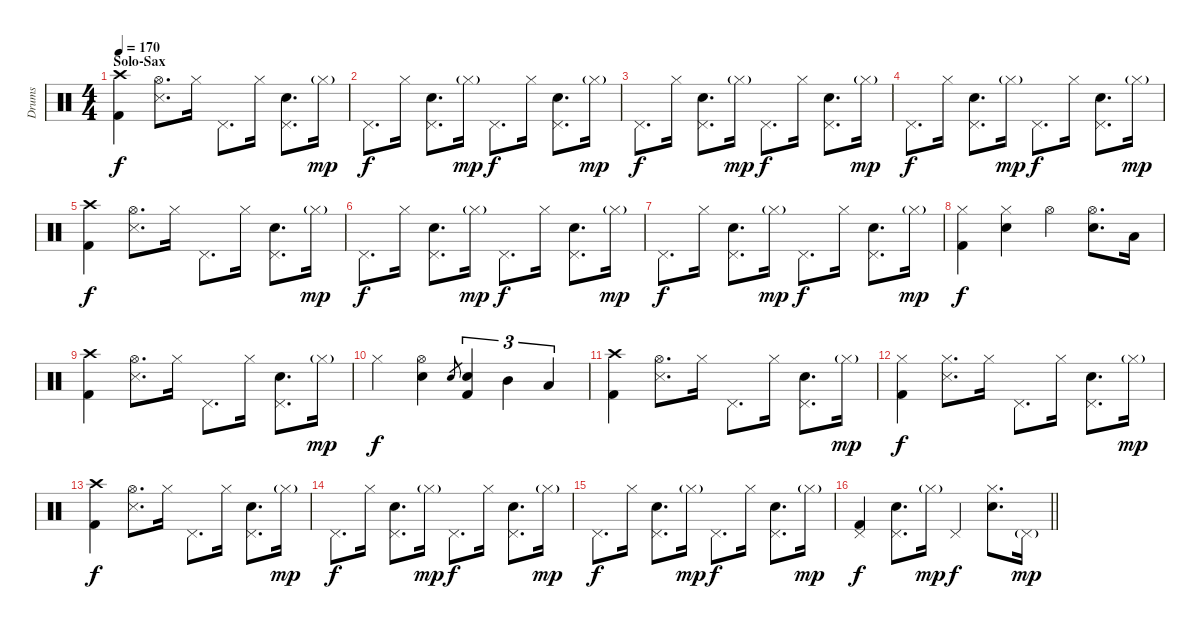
\track ("Drums" "Drums") {instrument percussion}
\staff {score}
\articulation defaults
\ts (4 4)
\section ("" "Solo-Sax")
\tempo 170
\clef neutral
\ks c
("Crash high (hit)" "Kick (hit) 2").4{dy f} ("Hi-Hat (open)" "Snare (side stick) 3").8{d} "Hi-Hat (closed)".16 "Pedal Hi-Hat (hit)".8{d} "Hi-Hat (closed)".16 ("Pedal Hi-Hat (hit)" "Snare (hit) 2").8{d} "Hi-Hat (closed)"{g}.16{dy mp} |
"Pedal Hi-Hat (hit)".8{d dy f} "Hi-Hat (closed)".16 ("Pedal Hi-Hat (hit)" "Snare (hit) 2").8{d} "Hi-Hat (closed)"{g}.16{dy mp} "Pedal Hi-Hat (hit)".8{d dy f} "Hi-Hat (closed)".16 ("Pedal Hi-Hat (hit)" "Snare (hit) 2").8{d} "Hi-Hat (closed)"{g}.16{dy mp} |
"Pedal Hi-Hat (hit)".8{d dy f} "Hi-Hat (closed)".16 ("Pedal Hi-Hat (hit)" "Snare (hit) 2").8{d} "Hi-Hat (closed)"{g}.16{dy mp} "Pedal Hi-Hat (hit)".8{d dy f} "Hi-Hat (closed)".16 ("Pedal Hi-Hat (hit)" "Snare (hit) 2").8{d} "Hi-Hat (closed)"{g}.16{dy mp} |
"Pedal Hi-Hat (hit)".8{d dy f} "Hi-Hat (closed)".16 ("Pedal Hi-Hat (hit)" "Snare (hit) 2").8{d} "Hi-Hat (closed)"{g}.16{dy mp} "Pedal Hi-Hat (hit)".8{d dy f} "Hi-Hat (closed)".16 ("Pedal Hi-Hat (hit)" "Snare (hit) 2").8{d} "Hi-Hat (closed)"{g}.16{dy mp} |
("Crash high (hit)" "Kick (hit) 2").4{dy f} ("Hi-Hat (open)" "Snare (side stick) 3").8{d} "Hi-Hat (closed)".16 "Pedal Hi-Hat (hit)".8{d} "Hi-Hat (closed)".16 ("Pedal Hi-Hat (hit)" "Snare (hit) 2").8{d} "Hi-Hat (closed)"{g}.16{dy mp} |
"Pedal Hi-Hat (hit)".8{d dy f} "Hi-Hat (closed)".16 ("Pedal Hi-Hat (hit)" "Snare (hit) 2").8{d} "Hi-Hat (closed)"{g}.16{dy mp} "Pedal Hi-Hat (hit)".8{d dy f} "Hi-Hat (closed)".16 ("Pedal Hi-Hat (hit)" "Snare (hit) 2").8{d} "Hi-Hat (closed)"{g}.16{dy mp} |
"Pedal Hi-Hat (hit)".8{d dy f} "Hi-Hat (closed)".16 ("Pedal Hi-Hat (hit)" "Snare (hit) 2").8{d} "Hi-Hat (closed)"{g}.16{dy mp} "Pedal Hi-Hat (hit)".8{d dy f} "Hi-Hat (closed)".16 ("Pedal Hi-Hat (hit)" "Snare (hit) 2").8{d} "Hi-Hat (closed)"{g}.16{dy mp} |
("Hi-Hat (closed)" "Kick (hit) 2").4{dy f} ("Hi-Hat (closed)" "Snare (hit) 2").4 "Hi-Hat (open)".4 ("Hi-Hat (open)" "Snare (hit) 2").8{d} "Low Tom (hit)".16 |
("Crash high (hit)" "Kick (hit) 2").4 ("Hi-Hat (open)" "Snare (side stick) 3").8{d} "Hi-Hat (closed)".16 "Pedal Hi-Hat (hit)".8{d} "Hi-Hat (closed)".16 ("Pedal Hi-Hat (hit)" "Snare (hit) 2").8{d} "Hi-Hat (closed)"{g}.16{dy mp} |
"Hi-Hat (closed)".4{dy f} ("Hi-Hat (open)" "Snare (hit) 2").4 "Snare (hit) 2".8{gr} ("Snare (hit) 2" "Kick (hit) 2").4{tu (3 2)} "Mid Tom (hit)".4{tu (3 2)} "Low Tom (hit)".4{tu (3 2)} |
("Crash high (hit)" "Kick (hit) 2").4 ("Hi-Hat (open)" "Snare (side stick) 3").8{d} "Hi-Hat (closed)".16 "Pedal Hi-Hat (hit)".8{d} "Hi-Hat (closed)".16 ("Pedal Hi-Hat (hit)" "Snare (hit) 2").8{d} "Hi-Hat (closed)"{g}.16{dy mp} |
("Hi-Hat (closed)" "Kick (hit) 2").4{dy f} ("Hi-Hat (closed)" "Snare (side stick) 3").8{d} "Hi-Hat (closed)".16 "Pedal Hi-Hat (hit)".8{d} "Hi-Hat (closed)".16 ("Pedal Hi-Hat (hit)" "Snare (hit) 2").8{d} "Hi-Hat (closed)"{g}.16{dy mp} |
("Crash high (hit)" "Kick (hit) 2").4{dy f} ("Hi-Hat (open)" "Snare (side stick) 3").8{d} "Hi-Hat (closed)".16 "Pedal Hi-Hat (hit)".8{d} "Hi-Hat (closed)".16 ("Pedal Hi-Hat (hit)" "Snare (hit) 2").8{d} "Hi-Hat (closed)"{g}.16{dy mp} |
"Pedal Hi-Hat (hit)".8{d dy f} "Hi-Hat (closed)".16 ("Pedal Hi-Hat (hit)" "Snare (hit) 2").8{d} "Hi-Hat (closed)"{g}.16{dy mp} "Pedal Hi-Hat (hit)".8{d dy f} "Hi-Hat (closed)".16 ("Pedal Hi-Hat (hit)" "Snare (hit) 2").8{d} "Hi-Hat (closed)"{g}.16{dy mp} |
"Pedal Hi-Hat (hit)".8{d dy f} "Hi-Hat (closed)".16 ("Pedal Hi-Hat (hit)" "Snare (hit) 2").8{d} "Hi-Hat (closed)"{g}.16{dy mp} "Pedal Hi-Hat (hit)".8{d dy f} "Hi-Hat (closed)".16 ("Pedal Hi-Hat (hit)" "Snare (hit) 2").8{d} "Hi-Hat (closed)"{g}.16{dy mp} |
\barLineRight lightlight
("Pedal Hi-Hat (hit)" "Kick (hit) 2").4{dy f} ("Pedal Hi-Hat (hit)" "Snare (hit) 2").8{d} "Hi-Hat (closed)"{g}.16{dy mp} "Pedal Hi-Hat (hit)".4{dy f} ("Hi-Hat (closed)" "Snare (hit) 2").8{d} "Pedal Hi-Hat (hit)"{g}.16{dy mp}
